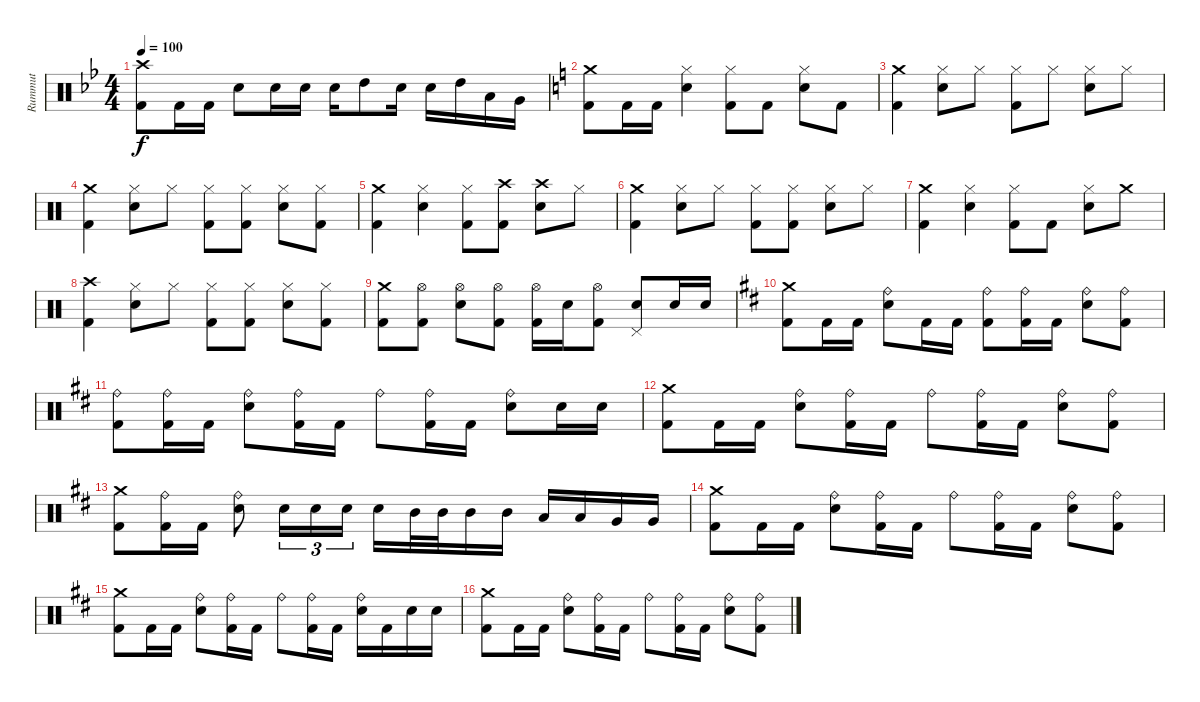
\track ("Rummut" "Rummut") {instrument percussion}
\staff {score}
\articulation defaults
\ts (4 4)
\tempo 100
\clef neutral
\ks gminor
("Crash high (hit)" "Kick (hit) 2").8{dy f} "Kick (hit) 2".16 "Kick (hit) 2".16 "Snare (hit) 2".8 "Snare (hit) 2".16 "Snare (hit) 2".16 "Snare (hit) 2".16 "High Tom (hit)".8 "Snare (hit) 2".16 "Snare (hit) 2".16 "High Tom (hit)".16 "Low Tom (hit)".16 "Very Low Tom (hit)".16 |
\ks c
("Crash medium (hit)" "Kick (hit) 2").8 "Kick (hit) 2".16 "Kick (hit) 2".16 ("Hi-Hat (closed)" "Snare (hit) 2").4 ("Hi-Hat (closed)" "Kick (hit) 2").8 "Kick (hit) 2".8 ("Hi-Hat (closed)" "Snare (hit) 2").8 "Kick (hit) 2".8 |
("Crash medium (hit)" "Kick (hit) 2").4 ("Hi-Hat (closed)" "Snare (hit) 2").8 "Hi-Hat (closed)".8 ("Hi-Hat (closed)" "Kick (hit) 2").8 "Hi-Hat (closed)".8 ("Hi-Hat (closed)" "Snare (hit) 2").8 "Hi-Hat (closed)".8 |
("Crash medium (hit)" "Kick (hit) 2").4 ("Hi-Hat (closed)" "Snare (hit) 2").8 "Hi-Hat (closed)".8 ("Hi-Hat (closed)" "Kick (hit) 2").8 ("Hi-Hat (closed)" "Kick (hit) 2").8 ("Hi-Hat (closed)" "Snare (hit) 2").8 ("Hi-Hat (closed)" "Kick (hit) 2").8 |
("Crash medium (hit)" "Kick (hit) 2").4 ("Hi-Hat (closed)" "Snare (hit) 2").4 ("Hi-Hat (closed)" "Kick (hit) 2").8 ("Crash high (hit)" "Kick (hit) 2").8 ("Crash high (hit)" "Snare (hit) 2").8 "Hi-Hat (closed)".8 |
("Crash medium (hit)" "Kick (hit) 2").4 ("Hi-Hat (closed)" "Snare (hit) 2").8 "Hi-Hat (closed)".8 ("Hi-Hat (closed)" "Kick (hit) 2").8 ("Hi-Hat (closed)" "Kick (hit) 2").8 ("Hi-Hat (closed)" "Snare (hit) 2").8 "Hi-Hat (closed)".8 |
("Crash medium (hit)" "Kick (hit) 2").4 ("Hi-Hat (closed)" "Snare (hit) 2").4 ("Hi-Hat (closed)" "Kick (hit) 2").8 "Kick (hit) 2".8 ("Hi-Hat (closed)" "Snare (hit) 2").8 "Crash medium (hit)".8 |
("Crash high (hit)" "Kick (hit) 2").4 ("Hi-Hat (closed)" "Snare (hit) 2").8 "Hi-Hat (closed)".8 ("Hi-Hat (closed)" "Kick (hit) 2").8 ("Hi-Hat (closed)" "Kick (hit) 2").8 ("Hi-Hat (closed)" "Snare (hit) 2").8 ("Hi-Hat (closed)" "Kick (hit) 2").8 |
("Crash medium (hit)" "Kick (hit) 2").8 ("Hi-Hat (open)" "Kick (hit) 2").8 ("Hi-Hat (open)" "Snare (hit) 2").8 ("Hi-Hat (open)" "Kick (hit) 2").8 ("Hi-Hat (open)" "Kick (hit) 2").16 "Snare (hit) 2".16 ("Hi-Hat (open)" "Kick (hit) 2").8 ("Pedal Hi-Hat (hit)" "Snare (hit) 2").8 "Snare (hit) 2".16 "Snare (hit) 2".16 |
\ks d
("Crash medium (hit)" "Kick (hit) 2").8 "Kick (hit) 2".16 "Kick (hit) 2".16 ("Ride (bell)" "Snare (hit) 2").8 "Kick (hit) 2".16 "Kick (hit) 2".16 ("Ride (bell)" "Kick (hit) 2").8 ("Ride (bell)" "Kick (hit) 2").16 "Kick (hit) 2".16 ("Ride (bell)" "Snare (hit) 2").8 ("Ride (bell)" "Kick (hit) 2").8 |
("Ride (bell)" "Kick (hit) 2").8 ("Ride (bell)" "Kick (hit) 2").16 "Kick (hit) 2".16 ("Ride (bell)" "Snare (hit) 2").8 ("Ride (bell)" "Kick (hit) 2").16 "Kick (hit) 2".16 "Ride (bell)".8 ("Ride (bell)" "Kick (hit) 2").16 "Kick (hit) 2".16 ("Ride (bell)" "Snare (hit) 2").8 "Snare (hit) 2".16 "Snare (hit) 2".16 |
("Crash medium (hit)" "Kick (hit) 2").8 "Kick (hit) 2".16 "Kick (hit) 2".16 ("Ride (bell)" "Snare (hit) 2").8 ("Ride (bell)" "Kick (hit) 2").16 "Kick (hit) 2".16 "Ride (bell)".8 ("Ride (bell)" "Kick (hit) 2").16 "Kick (hit) 2".16 ("Ride (bell)" "Snare (hit) 2").8 ("Ride (bell)" "Kick (hit) 2").8 |
("Crash medium (hit)" "Kick (hit) 2").8 ("Ride (bell)" "Kick (hit) 2").16 "Kick (hit) 2".16 ("Ride (bell)" "Snare (hit) 2").8 "Snare (hit) 2".16{tu (3 2)} "Snare (hit) 2".16{tu (3 2)} "Snare (hit) 2".16{tu (3 2)} "Snare (hit) 2".16 "Mid Tom (hit)".32 "Mid Tom (hit)".32 "Mid Tom (hit)".16 "Mid Tom (hit)".16 "Low Tom (hit)".16 "Low Tom (hit)".16 "Very Low Tom (hit)".16 "Very Low Tom (hit)".16 |
("Crash medium (hit)" "Kick (hit) 2").8 "Kick (hit) 2".16 "Kick (hit) 2".16 ("Ride (bell)" "Snare (hit) 2").8 ("Ride (bell)" "Kick (hit) 2").16 "Kick (hit) 2".16 "Ride (bell)".8 ("Ride (bell)" "Kick (hit) 2").16 "Kick (hit) 2".16 ("Ride (bell)" "Snare (hit) 2").8 ("Ride (bell)" "Kick (hit) 2").8 |
("Crash medium (hit)" "Kick (hit) 2").8 "Kick (hit) 2".16 "Kick (hit) 2".16 ("Ride (bell)" "Snare (hit) 2").8 ("Ride (bell)" "Kick (hit) 2").16 "Kick (hit) 2".16 "Ride (bell)".8 ("Ride (bell)" "Kick (hit) 2").16 "Kick (hit) 2".16 ("Ride (bell)" "Snare (hit) 2").16 "Kick (hit) 2".16 "Snare (hit) 2".16 "Snare (hit) 2".16 |
("Crash medium (hit)" "Kick (hit) 2").8 "Kick (hit) 2".16 "Kick (hit) 2".16 ("Ride (bell)" "Snare (hit) 2").8 ("Ride (bell)" "Kick (hit) 2").16 "Kick (hit) 2".16 "Ride (bell)".8 ("Ride (bell)" "Kick (hit) 2").16 "Kick (hit) 2".16 ("Ride (bell)" "Snare (hit) 2").8 ("Ride (bell)" "Kick (hit) 2").8
